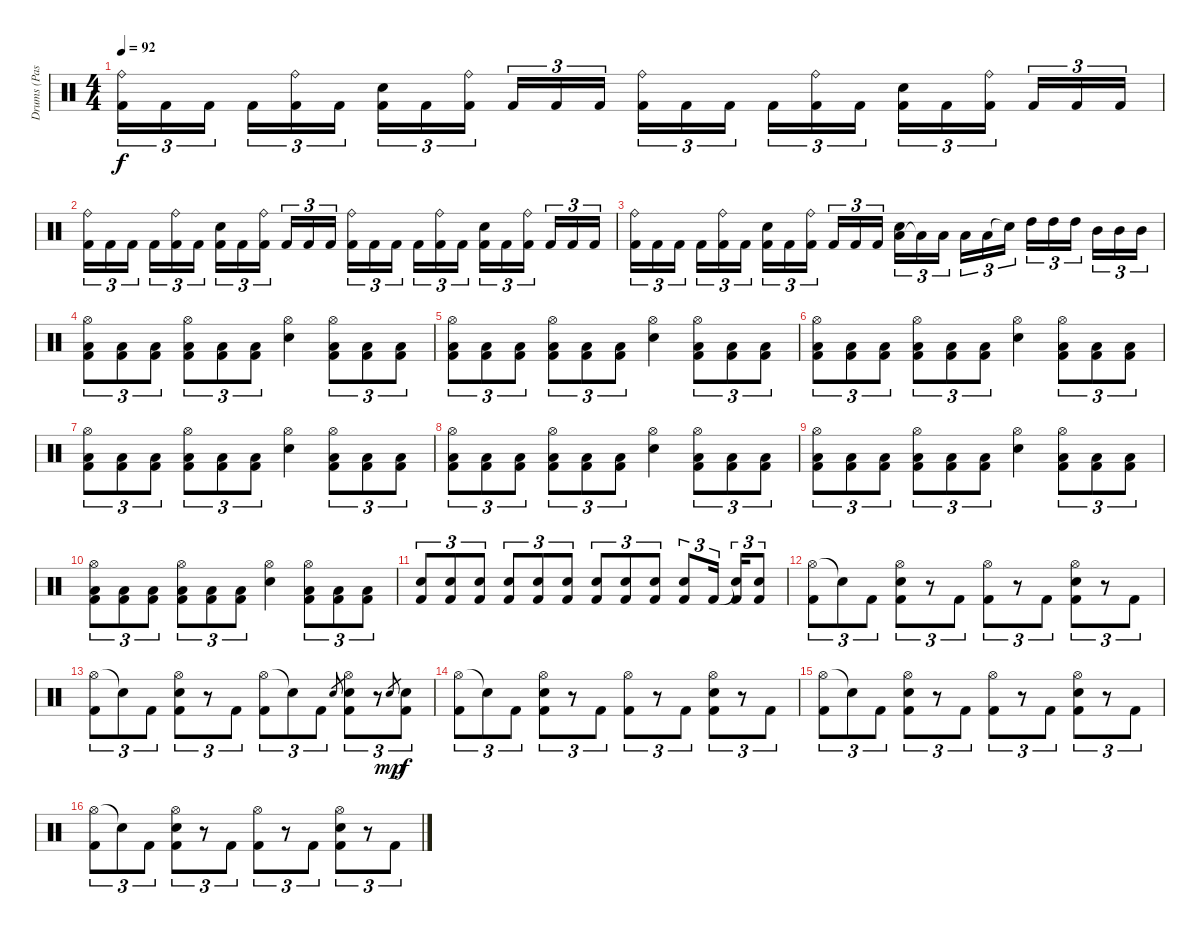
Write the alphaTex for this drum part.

\track ("Drums (Pasanen)" "Drums (Pas") {instrument percussion}
\staff {score}
\articulation defaults
\ts (4 4)
\tempo 92
\clef neutral
\ks c
("Ride (bell)" "Kick (hit) 2").16{tu (3 2) dy f} "Kick (hit) 2".16{tu (3 2)} "Kick (hit) 2".16{tu (3 2) beam splitsecondary} "Kick (hit) 2".16{tu (3 2)} ("Ride (bell)" "Kick (hit) 2").16{tu (3 2)} "Kick (hit) 2".16{tu (3 2)} ("Electric Snare (hit)" "Kick (hit) 2").16{tu (3 2)} "Kick (hit) 2".16{tu (3 2)} ("Ride (bell)" "Kick (hit) 2").16{tu (3 2) beam splitsecondary} "Kick (hit) 2".16{tu (3 2)} "Kick (hit) 2".16{tu (3 2)} "Kick (hit) 2".16{tu (3 2)} ("Ride (bell)" "Kick (hit) 2").16{tu (3 2)} "Kick (hit) 2".16{tu (3 2)} "Kick (hit) 2".16{tu (3 2) beam splitsecondary} "Kick (hit) 2".16{tu (3 2)} ("Ride (bell)" "Kick (hit) 2").16{tu (3 2)} "Kick (hit) 2".16{tu (3 2)} ("Electric Snare (hit)" "Kick (hit) 2").16{tu (3 2)} "Kick (hit) 2".16{tu (3 2)} ("Ride (bell)" "Kick (hit) 2").16{tu (3 2) beam splitsecondary} "Kick (hit) 2".16{tu (3 2)} "Kick (hit) 2".16{tu (3 2)} "Kick (hit) 2".16{tu (3 2)} |
("Ride (bell)" "Kick (hit) 2").16{tu (3 2)} "Kick (hit) 2".16{tu (3 2)} "Kick (hit) 2".16{tu (3 2) beam splitsecondary} "Kick (hit) 2".16{tu (3 2)} ("Ride (bell)" "Kick (hit) 2").16{tu (3 2)} "Kick (hit) 2".16{tu (3 2)} ("Electric Snare (hit)" "Kick (hit) 2").16{tu (3 2)} "Kick (hit) 2".16{tu (3 2)} ("Ride (bell)" "Kick (hit) 2").16{tu (3 2) beam splitsecondary} "Kick (hit) 2".16{tu (3 2)} "Kick (hit) 2".16{tu (3 2)} "Kick (hit) 2".16{tu (3 2)} ("Ride (bell)" "Kick (hit) 2").16{tu (3 2)} "Kick (hit) 2".16{tu (3 2)} "Kick (hit) 2".16{tu (3 2) beam splitsecondary} "Kick (hit) 2".16{tu (3 2)} ("Ride (bell)" "Kick (hit) 2").16{tu (3 2)} "Kick (hit) 2".16{tu (3 2)} ("Electric Snare (hit)" "Kick (hit) 2").16{tu (3 2)} "Kick (hit) 2".16{tu (3 2)} ("Ride (bell)" "Kick (hit) 2").16{tu (3 2) beam splitsecondary} "Kick (hit) 2".16{tu (3 2)} "Kick (hit) 2".16{tu (3 2)} "Kick (hit) 2".16{tu (3 2)} |
("Ride (bell)" "Kick (hit) 2").16{tu (3 2)} "Kick (hit) 2".16{tu (3 2)} "Kick (hit) 2".16{tu (3 2) beam splitsecondary} "Kick (hit) 2".16{tu (3 2)} ("Ride (bell)" "Kick (hit) 2").16{tu (3 2)} "Kick (hit) 2".16{tu (3 2)} ("Electric Snare (hit)" "Kick (hit) 2").16{tu (3 2)} "Kick (hit) 2".16{tu (3 2)} ("Ride (bell)" "Kick (hit) 2").16{tu (3 2) beam splitsecondary} "Kick (hit) 2".16{tu (3 2)} "Kick (hit) 2".16{tu (3 2)} "Kick (hit) 2".16{tu (3 2)} ("Low Tom (hit)" "Electric Snare (hit)").16{tu (3 2)} "Low Tom (hit)"{t}.16{tu (3 2)} "Low Tom (hit)".16{tu (3 2) beam splitsecondary} "Low Tom (hit)".16{tu (3 2)} "Low Tom (hit)".16{tu (3 2)} "Snare (hit)"{t}.16{tu (3 2)} "High Tom (hit)".16{tu (3 2)} "High Tom (hit)".16{tu (3 2)} "High Tom (hit)".16{tu (3 2) beam splitsecondary} "Mid Tom (hit)".16{tu (3 2)} "Mid Tom (hit)".16{tu (3 2)} "Mid Tom (hit)".16{tu (3 2)} |
("Hi-Hat (open)" "Low Tom (hit)" "Kick (hit) 2").8{tu (3 2)} ("Low Tom (hit)" "Kick (hit) 2").8{tu (3 2)} ("Low Tom (hit)" "Kick (hit) 2").8{tu (3 2)} ("Hi-Hat (open)" "Low Tom (hit)" "Kick (hit) 2").8{tu (3 2)} ("Low Tom (hit)" "Kick (hit) 2").8{tu (3 2)} ("Low Tom (hit)" "Kick (hit) 2").8{tu (3 2)} ("Hi-Hat (open)" "Electric Snare (hit)").4 ("Hi-Hat (open)" "Low Tom (hit)" "Kick (hit) 2").8{tu (3 2)} ("Low Tom (hit)" "Kick (hit) 2").8{tu (3 2)} ("Low Tom (hit)" "Kick (hit) 2").8{tu (3 2)} |
("Hi-Hat (open)" "Low Tom (hit)" "Kick (hit) 2").8{tu (3 2)} ("Low Tom (hit)" "Kick (hit) 2").8{tu (3 2)} ("Low Tom (hit)" "Kick (hit) 2").8{tu (3 2)} ("Hi-Hat (open)" "Low Tom (hit)" "Kick (hit) 2").8{tu (3 2)} ("Low Tom (hit)" "Kick (hit) 2").8{tu (3 2)} ("Low Tom (hit)" "Kick (hit) 2").8{tu (3 2)} ("Hi-Hat (open)" "Electric Snare (hit)").4 ("Hi-Hat (open)" "Low Tom (hit)" "Kick (hit) 2").8{tu (3 2)} ("Low Tom (hit)" "Kick (hit) 2").8{tu (3 2)} ("Low Tom (hit)" "Kick (hit) 2").8{tu (3 2)} |
("Hi-Hat (open)" "Low Tom (hit)" "Kick (hit) 2").8{tu (3 2)} ("Low Tom (hit)" "Kick (hit) 2").8{tu (3 2)} ("Low Tom (hit)" "Kick (hit) 2").8{tu (3 2)} ("Hi-Hat (open)" "Low Tom (hit)" "Kick (hit) 2").8{tu (3 2)} ("Low Tom (hit)" "Kick (hit) 2").8{tu (3 2)} ("Low Tom (hit)" "Kick (hit) 2").8{tu (3 2)} ("Hi-Hat (open)" "Electric Snare (hit)").4 ("Hi-Hat (open)" "Low Tom (hit)" "Kick (hit) 2").8{tu (3 2)} ("Low Tom (hit)" "Kick (hit) 2").8{tu (3 2)} ("Low Tom (hit)" "Kick (hit) 2").8{tu (3 2)} |
("Hi-Hat (open)" "Low Tom (hit)" "Kick (hit) 2").8{tu (3 2)} ("Low Tom (hit)" "Kick (hit) 2").8{tu (3 2)} ("Low Tom (hit)" "Kick (hit) 2").8{tu (3 2)} ("Hi-Hat (open)" "Low Tom (hit)" "Kick (hit) 2").8{tu (3 2)} ("Low Tom (hit)" "Kick (hit) 2").8{tu (3 2)} ("Low Tom (hit)" "Kick (hit) 2").8{tu (3 2)} ("Hi-Hat (open)" "Electric Snare (hit)").4 ("Hi-Hat (open)" "Low Tom (hit)" "Kick (hit) 2").8{tu (3 2)} ("Low Tom (hit)" "Kick (hit) 2").8{tu (3 2)} ("Low Tom (hit)" "Kick (hit) 2").8{tu (3 2)} |
("Hi-Hat (open)" "Low Tom (hit)" "Kick (hit) 2").8{tu (3 2)} ("Low Tom (hit)" "Kick (hit) 2").8{tu (3 2)} ("Low Tom (hit)" "Kick (hit) 2").8{tu (3 2)} ("Hi-Hat (open)" "Low Tom (hit)" "Kick (hit) 2").8{tu (3 2)} ("Low Tom (hit)" "Kick (hit) 2").8{tu (3 2)} ("Low Tom (hit)" "Kick (hit) 2").8{tu (3 2)} ("Hi-Hat (open)" "Electric Snare (hit)").4 ("Hi-Hat (open)" "Low Tom (hit)" "Kick (hit) 2").8{tu (3 2)} ("Low Tom (hit)" "Kick (hit) 2").8{tu (3 2)} ("Low Tom (hit)" "Kick (hit) 2").8{tu (3 2)} |
("Hi-Hat (open)" "Low Tom (hit)" "Kick (hit) 2").8{tu (3 2)} ("Low Tom (hit)" "Kick (hit) 2").8{tu (3 2)} ("Low Tom (hit)" "Kick (hit) 2").8{tu (3 2)} ("Hi-Hat (open)" "Low Tom (hit)" "Kick (hit) 2").8{tu (3 2)} ("Low Tom (hit)" "Kick (hit) 2").8{tu (3 2)} ("Low Tom (hit)" "Kick (hit) 2").8{tu (3 2)} ("Hi-Hat (open)" "Electric Snare (hit)").4 ("Hi-Hat (open)" "Low Tom (hit)" "Kick (hit) 2").8{tu (3 2)} ("Low Tom (hit)" "Kick (hit) 2").8{tu (3 2)} ("Low Tom (hit)" "Kick (hit) 2").8{tu (3 2)} |
("Hi-Hat (open)" "Low Tom (hit)" "Kick (hit) 2").8{tu (3 2)} ("Low Tom (hit)" "Kick (hit) 2").8{tu (3 2)} ("Low Tom (hit)" "Kick (hit) 2").8{tu (3 2)} ("Hi-Hat (open)" "Low Tom (hit)" "Kick (hit) 2").8{tu (3 2)} ("Low Tom (hit)" "Kick (hit) 2").8{tu (3 2)} ("Low Tom (hit)" "Kick (hit) 2").8{tu (3 2)} ("Hi-Hat (open)" "Electric Snare (hit)").4 ("Hi-Hat (open)" "Low Tom (hit)" "Kick (hit) 2").8{tu (3 2)} ("Low Tom (hit)" "Kick (hit) 2").8{tu (3 2)} ("Low Tom (hit)" "Kick (hit) 2").8{tu (3 2)} |
("Electric Snare (hit)" "Kick (hit) 2").8{tu (3 2)} ("Electric Snare (hit)" "Kick (hit) 2").8{tu (3 2)} ("Electric Snare (hit)" "Kick (hit) 2").8{tu (3 2)} ("Electric Snare (hit)" "Kick (hit) 2").8{tu (3 2)} ("Electric Snare (hit)" "Kick (hit) 2").8{tu (3 2)} ("Electric Snare (hit)" "Kick (hit) 2").8{tu (3 2)} ("Electric Snare (hit)" "Kick (hit) 2").8{tu (3 2)} ("Electric Snare (hit)" "Kick (hit) 2").8{tu (3 2)} ("Electric Snare (hit)" "Kick (hit) 2").8{tu (3 2)} ("Electric Snare (hit)" "Kick (hit) 2").8{tu (3 2)} "Kick (hit) 2".16{tu (3 2) beam splitsecondary} ("Snare (hit)"{t} "Kick (hit) 2").16{tu (3 2)} ("Electric Snare (hit)" "Kick (hit) 2").8{tu (3 2)} |
("Hi-Hat (open)" "Kick (hit) 2").8{tu (3 2)} "Snare (hit)"{t}.8{tu (3 2)} "Kick (hit) 2".8{tu (3 2)} ("Hi-Hat (open)" "Electric Snare (hit)" "Kick (hit) 2").8{tu (3 2)} r.8{tu (3 2)} "Kick (hit) 2".8{tu (3 2)} ("Hi-Hat (open)" "Kick (hit) 2").8{tu (3 2)} r.8{tu (3 2)} "Kick (hit) 2".8{tu (3 2)} ("Hi-Hat (open)" "Electric Snare (hit)" "Kick (hit) 2").8{tu (3 2)} r.8{tu (3 2)} "Kick (hit) 2".8{tu (3 2)} |
("Hi-Hat (open)" "Kick (hit) 2").8{tu (3 2)} "Snare (hit)"{t}.8{tu (3 2)} "Kick (hit) 2".8{tu (3 2)} ("Hi-Hat (open)" "Electric Snare (hit)" "Kick (hit) 2").8{tu (3 2)} r.8{tu (3 2)} "Kick (hit) 2".8{tu (3 2)} ("Hi-Hat (open)" "Kick (hit) 2").8{tu (3 2)} "Snare (hit)"{t}.8{tu (3 2)} "Kick (hit) 2".8{tu (3 2)} "Electric Snare (hit)".8{gr} ("Hi-Hat (open)" "Electric Snare (hit)" "Kick (hit) 2").8{tu (3 2)} r.8{tu (3 2)} "Electric Snare (hit)".8{gr dy mp} ("Electric Snare (hit)" "Kick (hit) 2").8{tu (3 2) dy f} |
("Hi-Hat (open)" "Kick (hit) 2").8{tu (3 2)} "Snare (hit)"{t}.8{tu (3 2)} "Kick (hit) 2".8{tu (3 2)} ("Hi-Hat (open)" "Electric Snare (hit)" "Kick (hit) 2").8{tu (3 2)} r.8{tu (3 2)} "Kick (hit) 2".8{tu (3 2)} ("Hi-Hat (open)" "Kick (hit) 2").8{tu (3 2)} r.8{tu (3 2)} "Kick (hit) 2".8{tu (3 2)} ("Hi-Hat (open)" "Electric Snare (hit)" "Kick (hit) 2").8{tu (3 2)} r.8{tu (3 2)} "Kick (hit) 2".8{tu (3 2)} |
("Hi-Hat (open)" "Kick (hit) 2").8{tu (3 2)} "Snare (hit)"{t}.8{tu (3 2)} "Kick (hit) 2".8{tu (3 2)} ("Hi-Hat (open)" "Electric Snare (hit)" "Kick (hit) 2").8{tu (3 2)} r.8{tu (3 2)} "Kick (hit) 2".8{tu (3 2)} ("Hi-Hat (open)" "Kick (hit) 2").8{tu (3 2)} r.8{tu (3 2)} "Kick (hit) 2".8{tu (3 2)} ("Hi-Hat (open)" "Electric Snare (hit)" "Kick (hit) 2").8{tu (3 2)} r.8{tu (3 2)} "Kick (hit) 2".8{tu (3 2)} |
("Hi-Hat (open)" "Kick (hit) 2").8{tu (3 2)} "Snare (hit)"{t}.8{tu (3 2)} "Kick (hit) 2".8{tu (3 2)} ("Hi-Hat (open)" "Electric Snare (hit)" "Kick (hit) 2").8{tu (3 2)} r.8{tu (3 2)} "Kick (hit) 2".8{tu (3 2)} ("Hi-Hat (open)" "Kick (hit) 2").8{tu (3 2)} r.8{tu (3 2)} "Kick (hit) 2".8{tu (3 2)} ("Hi-Hat (open)" "Electric Snare (hit)" "Kick (hit) 2").8{tu (3 2)} r.8{tu (3 2)} "Kick (hit) 2".8{tu (3 2)}
